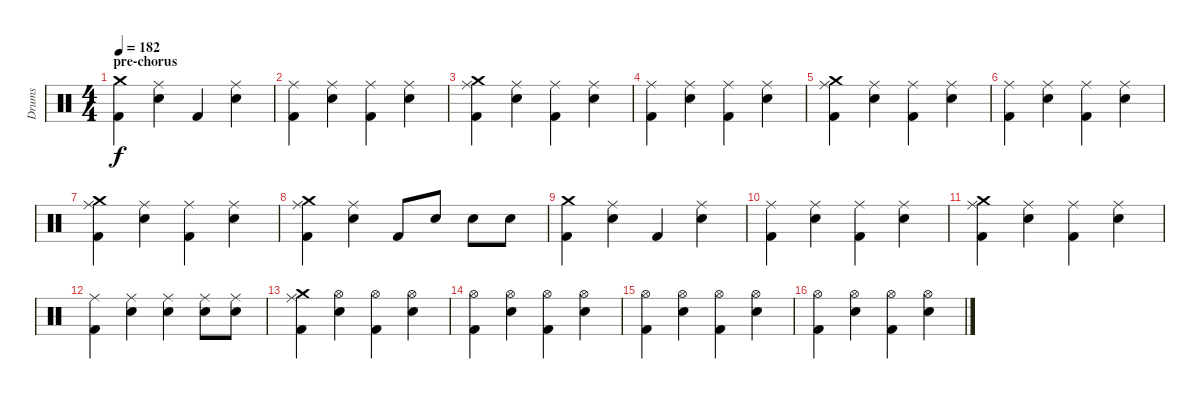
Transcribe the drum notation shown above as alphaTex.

\track ("Drums" "Drums") {instrument percussion}
\staff {score}
\articulation defaults
\ts (4 4)
\section ("" "pre-chorus")
\tempo 182
\clef neutral
\ks c
("Kick (hit) 2" "Crash medium (hit)").4{dy f} ("Snare (hit) 2" "Ride (middle)").4 "Kick (hit) 2".4 ("Snare (hit) 2" "Ride (middle)").4 |
("Kick (hit) 2" "Ride (middle)").4 ("Snare (hit) 2" "Ride (middle)").4 ("Kick (hit) 2" "Ride (middle)").4 ("Snare (hit) 2" "Ride (middle)").4 |
("Kick (hit) 2" "Ride (middle)" "Crash medium (hit)").4 ("Snare (hit) 2" "Ride (middle)").4 ("Kick (hit) 2" "Ride (middle)").4 ("Snare (hit) 2" "Ride (middle)").4 |
("Kick (hit) 2" "Ride (middle)").4 ("Snare (hit) 2" "Ride (middle)").4 ("Kick (hit) 2" "Ride (middle)").4 ("Snare (hit) 2" "Ride (middle)").4 |
("Kick (hit) 2" "Ride (middle)" "Crash medium (hit)").4 ("Snare (hit) 2" "Ride (middle)").4 ("Kick (hit) 2" "Ride (middle)").4 ("Snare (hit) 2" "Ride (middle)").4 |
("Kick (hit) 2" "Ride (middle)").4 ("Snare (hit) 2" "Ride (middle)").4 ("Kick (hit) 2" "Ride (middle)").4 ("Snare (hit) 2" "Ride (middle)").4 |
("Kick (hit) 2" "Ride (middle)" "Crash medium (hit)").4 ("Snare (hit) 2" "Ride (middle)").4 ("Kick (hit) 2" "Ride (middle)").4 ("Snare (hit) 2" "Ride (middle)").4 |
("Kick (hit) 2" "Ride (middle)" "Crash medium (hit)").4 ("Snare (hit) 2" "Ride (middle)").4 "Kick (hit) 2".8 "Snare (hit) 2".8 "Snare (hit) 2".8 "Snare (hit) 2".8 |
("Kick (hit) 2" "Crash medium (hit)").4 ("Snare (hit) 2" "Ride (middle)").4 "Kick (hit) 2".4 ("Snare (hit) 2" "Ride (middle)").4 |
("Kick (hit) 2" "Ride (middle)").4 ("Snare (hit) 2" "Ride (middle)").4 ("Kick (hit) 2" "Ride (middle)").4 ("Snare (hit) 2" "Ride (middle)").4 |
("Kick (hit) 2" "Ride (middle)" "Crash medium (hit)").4 ("Snare (hit) 2" "Ride (middle)").4 ("Kick (hit) 2" "Ride (middle)").4 ("Snare (hit) 2" "Ride (middle)").4 |
("Kick (hit) 2" "Ride (middle)").4 ("Snare (hit) 2" "Ride (middle)").4 ("Snare (hit) 2" "Ride (middle)").4 ("Snare (hit) 2" "Ride (middle)").8 ("Snare (hit) 2" "Ride (middle)").8 |
("Kick (hit) 2" "Ride (middle)" "Crash medium (hit)").4 ("Snare (hit) 2" "Hi-Hat (open)").4 ("Kick (hit) 2" "Hi-Hat (open)").4 ("Snare (hit) 2" "Hi-Hat (open)").4 |
("Kick (hit) 2" "Hi-Hat (open)").4 ("Snare (hit) 2" "Hi-Hat (open)").4 ("Kick (hit) 2" "Hi-Hat (open)").4 ("Snare (hit) 2" "Hi-Hat (open)").4 |
("Kick (hit) 2" "Hi-Hat (open)").4 ("Snare (hit) 2" "Hi-Hat (open)").4 ("Kick (hit) 2" "Hi-Hat (open)").4 ("Snare (hit) 2" "Hi-Hat (open)").4 |
("Kick (hit) 2" "Hi-Hat (open)").4 ("Snare (hit) 2" "Hi-Hat (open)").4 ("Kick (hit) 2" "Hi-Hat (open)").4 ("Snare (hit) 2" "Hi-Hat (open)").4
